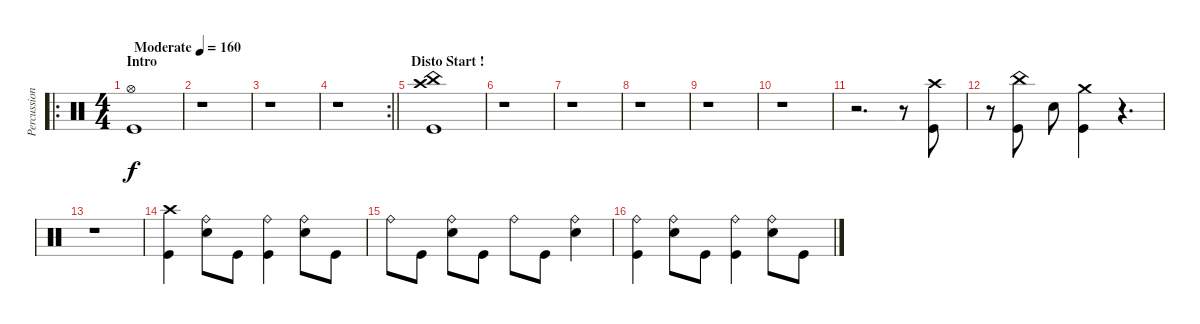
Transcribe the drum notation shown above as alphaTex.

\track ("Percussions" "Percussion") {instrument percussion}
\staff {score}
\articulation defaults
\ro
\ts (4 4)
\section ("" "Intro")
\tempo (160 "Moderate")
\clef neutral
\ks c
("Kick (hit)" "Hi-Hat (open)").1{dy f} |
r.1 |
r.1 |
\rc 2
\barLineRight lightlight
r.1 |
\section ("" "Disto Start !")
("Kick (hit)" "China (hit)" "Crash high (hit)").1 |
r.1 |
r.1 |
r.1 |
r.1 |
r.1 |
r.2{d} r.8 ("Kick (hit)" "Crash high (hit)").8 |
r.8 ("Kick (hit)" "China (hit)").8 "Snare (hit) 2".8 ("Kick (hit)" "Crash medium (hit)").4 r.4{d} |
r.1 |
("Kick (hit)" "Crash high (hit)").4 ("Snare (hit) 2" "Ride (bell)").8 "Kick (hit)".8 ("Kick (hit)" "Ride (bell)").4 ("Snare (hit) 2" "Ride (bell)").8 "Kick (hit)".8 |
"Ride (bell)".8 "Kick (hit)".8 ("Snare (hit) 2" "Ride (bell)").8 "Kick (hit)".8 "Ride (bell)".8 "Kick (hit)".8 ("Snare (hit) 2" "Ride (bell)").4 |
("Kick (hit)" "Ride (bell)").4 ("Snare (hit) 2" "Ride (bell)").8 "Kick (hit)".8 ("Kick (hit)" "Ride (bell)").4 ("Snare (hit) 2" "Ride (bell)").8 "Kick (hit)".8
